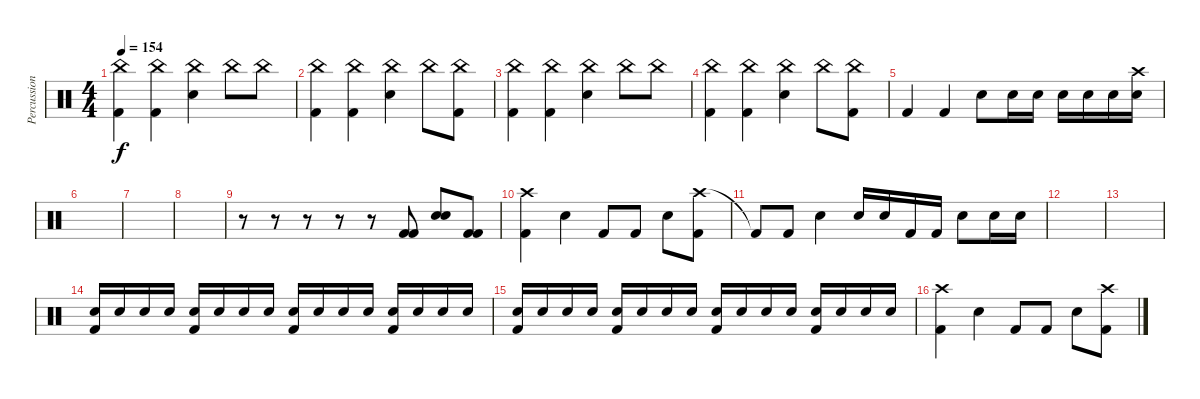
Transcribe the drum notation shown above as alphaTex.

\track ("Percussion" "Percussion") {instrument percussion}
\staff {score}
\articulation defaults
\ts (4 4)
\tempo 154
\clef neutral
\ks c
("China (hit)" "Kick (hit) 2").4{dy f} ("China (hit)" "Kick (hit) 2").4 ("China (hit)" "Electric Snare (hit)").4 "China (hit)".8 "China (hit)".8 |
("China (hit)" "Kick (hit) 2").4 ("China (hit)" "Kick (hit) 2").4 ("China (hit)" "Electric Snare (hit)").4 "China (hit)".8 ("China (hit)" "Kick (hit) 2").8 |
("China (hit)" "Kick (hit) 2").4 ("China (hit)" "Kick (hit) 2").4 ("China (hit)" "Electric Snare (hit)").4 "China (hit)".8 "China (hit)".8 |
("China (hit)" "Kick (hit) 2").4 ("China (hit)" "Kick (hit) 2").4 ("China (hit)" "Electric Snare (hit)").4 "China (hit)".8 ("China (hit)" "Kick (hit) 2").8 |
"Kick (hit) 2".4 "Kick (hit) 2".4 "Electric Snare (hit)".8 "Electric Snare (hit)".16 "Electric Snare (hit)".16 "Electric Snare (hit)".16 "Electric Snare (hit)".16 "Electric Snare (hit)".16 ("Crash high (hit)" "Electric Snare (hit)").16 |
|
|
|
r.8 r.8 r.8 r.8 r.8 ("Kick (hit) 2" "Kick (hit) 2").8 ("Electric Snare (hit)" "Electric Snare (hit)").8 ("Kick (hit) 2" "Kick (hit) 2").8 |
("Crash high (hit)" "Kick (hit) 2").4 "Electric Snare (hit)".4 "Kick (hit) 2".8 "Kick (hit) 2".8 "Electric Snare (hit)".8 ("Crash high (hit)" "Kick (hit) 2").8 |
"Kick (hit) 2"{t}.8 "Kick (hit) 2".8 "Electric Snare (hit)".4 "Electric Snare (hit)".16 "Electric Snare (hit)".16 "Kick (hit) 2".16 "Kick (hit) 2".16 "Electric Snare (hit)".8 "Electric Snare (hit)".16 "Electric Snare (hit)".16 |
|
|
("Electric Snare (hit)" "Kick (hit) 2").16 "Electric Snare (hit)".16 "Electric Snare (hit)".16 "Electric Snare (hit)".16 ("Electric Snare (hit)" "Kick (hit) 2").16 "Electric Snare (hit)".16 "Electric Snare (hit)".16 "Electric Snare (hit)".16 ("Electric Snare (hit)" "Kick (hit) 2").16 "Electric Snare (hit)".16 "Electric Snare (hit)".16 "Electric Snare (hit)".16 ("Electric Snare (hit)" "Kick (hit) 2").16 "Electric Snare (hit)".16 "Electric Snare (hit)".16 "Electric Snare (hit)".16 |
("Electric Snare (hit)" "Kick (hit) 2").16 "Electric Snare (hit)".16 "Electric Snare (hit)".16 "Electric Snare (hit)".16 ("Electric Snare (hit)" "Kick (hit) 2").16 "Electric Snare (hit)".16 "Electric Snare (hit)".16 "Electric Snare (hit)".16 ("Electric Snare (hit)" "Kick (hit) 2").16 "Electric Snare (hit)".16 "Electric Snare (hit)".16 "Electric Snare (hit)".16 ("Electric Snare (hit)" "Kick (hit) 2").16 "Electric Snare (hit)".16 "Electric Snare (hit)".16 "Electric Snare (hit)".16 |
("Crash high (hit)" "Kick (hit) 2").4 "Electric Snare (hit)".4 "Kick (hit) 2".8 "Kick (hit) 2".8 "Electric Snare (hit)".8 ("Crash high (hit)" "Kick (hit) 2").8
